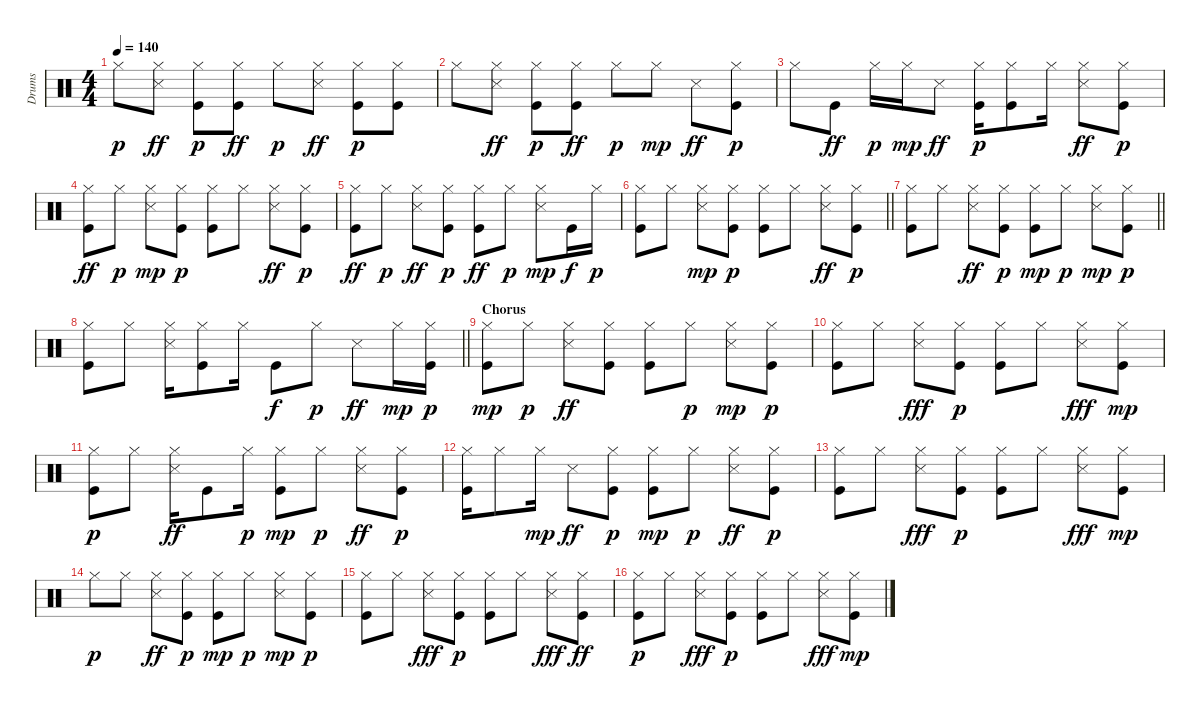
\track ("Drums" "Drums") {instrument percussion}
\staff {score}
\articulation defaults
\ts (4 4)
\tempo 140
\clef neutral
\ks c "Hi-Hat (closed)".8{dy p}
("Hi-Hat (closed)" "Snare (side stick) 3").8{dy ff} ("Kick (hit)" "Hi-Hat (closed)").8{dy p} ("Hi-Hat (closed)" "Kick (hit)").8{dy ff} "Hi-Hat (closed)".8{dy p} ("Hi-Hat (closed)" "Snare (side stick) 3").8{dy ff} ("Kick (hit)" "Hi-Hat (closed)").8{dy p} ("Kick (hit)" "Hi-Hat (closed)").8 |
"Hi-Hat (closed)".8 ("Hi-Hat (closed)" "Snare (side stick) 3").8{dy ff} ("Hi-Hat (closed)" "Kick (hit)").8{dy p} ("Hi-Hat (closed)" "Kick (hit)").8{dy ff} "Hi-Hat (closed)".8{dy p} "Hi-Hat (closed)".8{dy mp} "Snare (side stick) 3".8{dy ff} ("Hi-Hat (closed)" "Kick (hit)").8{dy p} |
"Hi-Hat (closed)".8 "Kick (hit)".8{dy ff} "Hi-Hat (closed)".16{dy p} "Hi-Hat (closed)".16{dy mp} "Snare (side stick) 3".8{dy ff} ("Kick (hit)" "Hi-Hat (closed)").16{dy p} ("Kick (hit)" "Hi-Hat (closed)").8 "Hi-Hat (closed)".16 ("Hi-Hat (closed)" "Snare (side stick) 3").8{dy ff} ("Kick (hit)" "Hi-Hat (closed)").8{dy p} |
("Hi-Hat (closed)" "Kick (hit)").8{dy ff} "Hi-Hat (closed)".8{dy p} ("Hi-Hat (closed)" "Snare (side stick) 3").8{dy mp} ("Kick (hit)" "Hi-Hat (closed)").8{dy p} ("Hi-Hat (closed)" "Kick (hit)").8 "Hi-Hat (closed)".8 ("Hi-Hat (closed)" "Snare (side stick) 3").8{dy ff} ("Hi-Hat (closed)" "Kick (hit)").8{dy p} |
("Hi-Hat (closed)" "Kick (hit)").8{dy ff} "Hi-Hat (closed)".8{dy p} ("Hi-Hat (closed)" "Snare (side stick) 3").8{dy ff} ("Hi-Hat (closed)" "Kick (hit)").8{dy p} ("Hi-Hat (closed)" "Kick (hit)").8{dy ff} "Hi-Hat (closed)".8{dy p} ("Snare (side stick) 3" "Hi-Hat (closed)").8{dy mp} "Kick (hit)".16{dy f} "Hi-Hat (closed)".16{dy p} |
\barLineRight lightlight
("Kick (hit)" "Hi-Hat (closed)").8 "Hi-Hat (closed)".8 ("Snare (side stick) 3" "Hi-Hat (closed)").8{dy mp} ("Kick (hit)" "Hi-Hat (closed)").8{dy p} ("Hi-Hat (closed)" "Kick (hit)").8 "Hi-Hat (closed)".8 ("Hi-Hat (closed)" "Snare (side stick) 3").8{dy ff} ("Kick (hit)" "Hi-Hat (closed)").8{dy p} |
\section ("" "")
\barLineRight lightlight
("Kick (hit)" "Hi-Hat (closed)").8 "Hi-Hat (closed)".8 ("Hi-Hat (closed)" "Snare (side stick) 3").8{dy ff} ("Kick (hit)" "Hi-Hat (closed)").8{dy p} ("Hi-Hat (closed)" "Kick (hit)").8{dy mp} "Hi-Hat (closed)".8{dy p} ("Snare (side stick) 3" "Hi-Hat (closed)").8{dy mp} ("Kick (hit)" "Hi-Hat (closed)").8{dy p} |
\section ("" "")
\barLineRight lightlight
("Kick (hit)" "Hi-Hat (closed)").8 "Hi-Hat (closed)".8 ("Snare (side stick) 3" "Hi-Hat (closed)").16 ("Kick (hit)" "Hi-Hat (closed)").8 "Hi-Hat (closed)".16 "Kick (hit)".8{dy f} "Hi-Hat (closed)".8{dy p} "Snare (side stick) 3".8{dy ff} "Hi-Hat (closed)".16{dy mp} ("Kick (hit)" "Hi-Hat (closed)").16{dy p} |
\section ("" "Chorus")
("Kick (hit)" "Hi-Hat (closed)").8{dy mp} "Hi-Hat (closed)".8{dy p} ("Hi-Hat (closed)" "Snare (side stick) 3").8{dy ff} ("Hi-Hat (closed)" "Kick (hit)").8 ("Hi-Hat (closed)" "Kick (hit)").8 "Hi-Hat (closed)".8{dy p} ("Snare (side stick) 3" "Hi-Hat (closed)").8{dy mp} ("Hi-Hat (closed)" "Kick (hit)").8{dy p} |
("Kick (hit)" "Hi-Hat (closed)").8 "Hi-Hat (closed)".8 ("Hi-Hat (closed)" "Snare (side stick) 3").8{dy fff} ("Kick (hit)" "Hi-Hat (closed)").8{dy p} ("Kick (hit)" "Hi-Hat (closed)").8 "Hi-Hat (closed)".8 ("Hi-Hat (closed)" "Snare (side stick) 3").8{dy fff} ("Hi-Hat (closed)" "Kick (hit)").8{dy mp} |
("Kick (hit)" "Hi-Hat (closed)").8{dy p} "Hi-Hat (closed)".8 ("Hi-Hat (closed)" "Snare (side stick) 3").16{dy ff} "Kick (hit)".8 "Hi-Hat (closed)".16{dy p} ("Hi-Hat (closed)" "Kick (hit)").8{dy mp} "Hi-Hat (closed)".8{dy p} ("Hi-Hat (closed)" "Snare (side stick) 3").8{dy ff} ("Hi-Hat (closed)" "Kick (hit)").8{dy p} |
("Hi-Hat (closed)" "Kick (hit)").16 "Hi-Hat (closed)".8 "Hi-Hat (closed)".16{dy mp} "Snare (side stick) 3".8{dy ff} ("Hi-Hat (closed)" "Kick (hit)").8{dy p} ("Kick (hit)" "Hi-Hat (closed)").8{dy mp} "Hi-Hat (closed)".8{dy p} ("Hi-Hat (closed)" "Snare (side stick) 3").8{dy ff} ("Kick (hit)" "Hi-Hat (closed)").8{dy p} |
("Kick (hit)" "Hi-Hat (closed)").8 "Hi-Hat (closed)".8 ("Hi-Hat (closed)" "Snare (side stick) 3").8{dy fff} ("Kick (hit)" "Hi-Hat (closed)").8{dy p} ("Kick (hit)" "Hi-Hat (closed)").8 "Hi-Hat (closed)".8 ("Hi-Hat (closed)" "Snare (side stick) 3").8{dy fff} ("Hi-Hat (closed)" "Kick (hit)").8{dy mp} |
"Hi-Hat (closed)".8{dy p} "Hi-Hat (closed)".8 ("Hi-Hat (closed)" "Snare (side stick) 3").8{dy ff} ("Kick (hit)" "Hi-Hat (closed)").8{dy p} ("Kick (hit)" "Hi-Hat (closed)").8{dy mp} "Hi-Hat (closed)".8{dy p} ("Snare (side stick) 3" "Hi-Hat (closed)").8{dy mp} ("Kick (hit)" "Hi-Hat (closed)").8{dy p} |
("Hi-Hat (closed)" "Kick (hit)").8 "Hi-Hat (closed)".8 ("Hi-Hat (closed)" "Snare (side stick) 3").8{dy fff} ("Hi-Hat (closed)" "Kick (hit)").8{dy p} ("Hi-Hat (closed)" "Kick (hit)").8 "Hi-Hat (closed)".8 ("Hi-Hat (closed)" "Snare (side stick) 3").8{dy fff} ("Hi-Hat (closed)" "Kick (hit)").8{dy ff} |
("Kick (hit)" "Hi-Hat (closed)").8{dy p} "Hi-Hat (closed)".8 ("Hi-Hat (closed)" "Snare (side stick) 3").8{dy fff} ("Kick (hit)" "Hi-Hat (closed)").8{dy p} ("Kick (hit)" "Hi-Hat (closed)").8 "Hi-Hat (closed)".8 ("Hi-Hat (closed)" "Snare (side stick) 3").8{dy fff} ("Hi-Hat (closed)" "Kick (hit)").8{dy mp}
